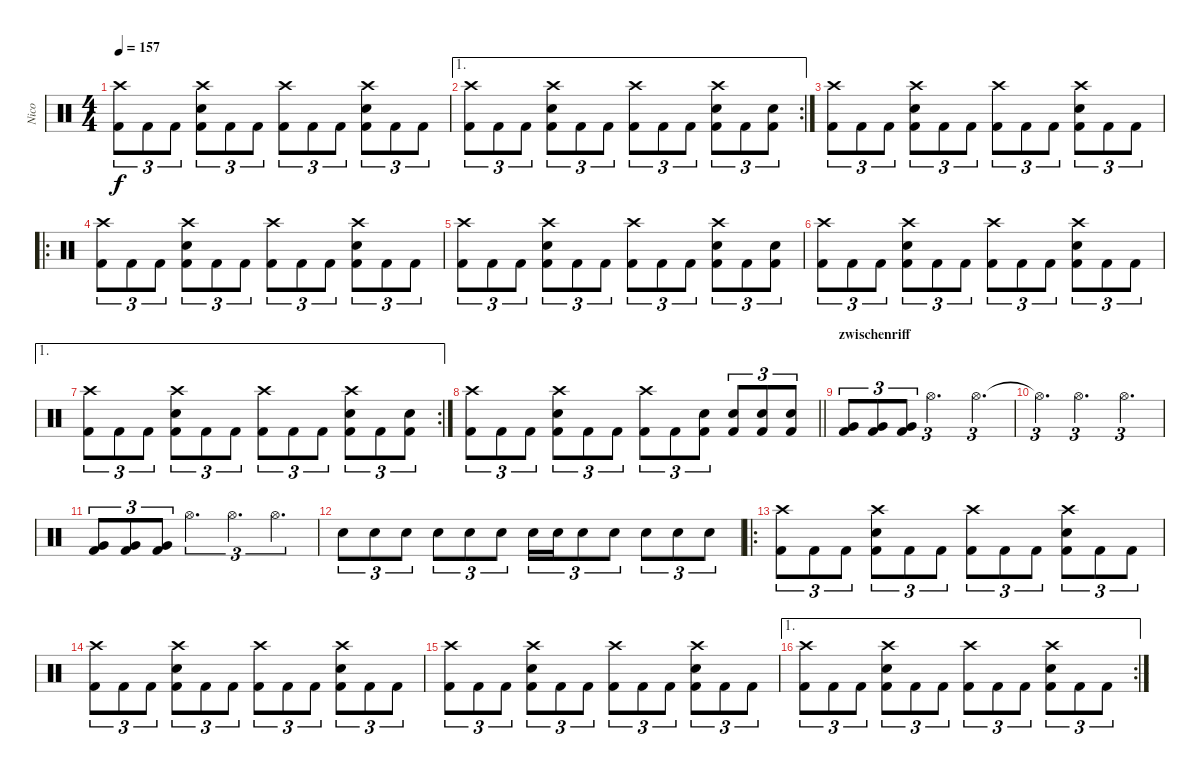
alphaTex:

\track ("Nico" "Nico") {instrument percussion}
\staff {score}
\articulation defaults
\ts (4 4)
\tempo 157
\clef neutral
\ks c
("Crash high (hit)" "Kick (hit) 2").8{tu (3 2) dy f} "Kick (hit) 2".8{tu (3 2)} "Kick (hit) 2".8{tu (3 2)} ("Crash high (hit)" "Electric Snare (hit)" "Kick (hit) 2").8{tu (3 2)} "Kick (hit) 2".8{tu (3 2)} "Kick (hit) 2".8{tu (3 2)} ("Crash high (hit)" "Kick (hit) 2").8{tu (3 2)} "Kick (hit) 2".8{tu (3 2)} "Kick (hit) 2".8{tu (3 2)} ("Crash high (hit)" "Electric Snare (hit)" "Kick (hit) 2").8{tu (3 2)} "Kick (hit) 2".8{tu (3 2)} "Kick (hit) 2".8{tu (3 2)} |
\ae 1
\rc 2
("Crash high (hit)" "Kick (hit) 2").8{tu (3 2)} "Kick (hit) 2".8{tu (3 2)} "Kick (hit) 2".8{tu (3 2)} ("Crash high (hit)" "Electric Snare (hit)" "Kick (hit) 2").8{tu (3 2)} "Kick (hit) 2".8{tu (3 2)} "Kick (hit) 2".8{tu (3 2)} ("Crash high (hit)" "Kick (hit) 2").8{tu (3 2)} "Kick (hit) 2".8{tu (3 2)} "Kick (hit) 2".8{tu (3 2)} ("Crash high (hit)" "Electric Snare (hit)" "Kick (hit) 2").8{tu (3 2)} "Kick (hit) 2".8{tu (3 2)} ("Electric Snare (hit)" "Kick (hit) 2").8{tu (3 2)} |
("Crash high (hit)" "Kick (hit) 2").8{tu (3 2)} "Kick (hit) 2".8{tu (3 2)} "Kick (hit) 2".8{tu (3 2)} ("Crash high (hit)" "Electric Snare (hit)" "Kick (hit) 2").8{tu (3 2)} "Kick (hit) 2".8{tu (3 2)} "Kick (hit) 2".8{tu (3 2)} ("Crash high (hit)" "Kick (hit) 2").8{tu (3 2)} "Kick (hit) 2".8{tu (3 2)} "Kick (hit) 2".8{tu (3 2)} ("Crash high (hit)" "Electric Snare (hit)" "Kick (hit) 2").8{tu (3 2)} "Kick (hit) 2".8{tu (3 2)} "Kick (hit) 2".8{tu (3 2)} |
\ro
("Crash high (hit)" "Kick (hit) 2").8{tu (3 2)} "Kick (hit) 2".8{tu (3 2)} "Kick (hit) 2".8{tu (3 2)} ("Crash high (hit)" "Electric Snare (hit)" "Kick (hit) 2").8{tu (3 2)} "Kick (hit) 2".8{tu (3 2)} "Kick (hit) 2".8{tu (3 2)} ("Crash high (hit)" "Kick (hit) 2").8{tu (3 2)} "Kick (hit) 2".8{tu (3 2)} "Kick (hit) 2".8{tu (3 2)} ("Crash high (hit)" "Electric Snare (hit)" "Kick (hit) 2").8{tu (3 2)} "Kick (hit) 2".8{tu (3 2)} "Kick (hit) 2".8{tu (3 2)} |
("Crash high (hit)" "Kick (hit) 2").8{tu (3 2)} "Kick (hit) 2".8{tu (3 2)} "Kick (hit) 2".8{tu (3 2)} ("Crash high (hit)" "Electric Snare (hit)" "Kick (hit) 2").8{tu (3 2)} "Kick (hit) 2".8{tu (3 2)} "Kick (hit) 2".8{tu (3 2)} ("Crash high (hit)" "Kick (hit) 2").8{tu (3 2)} "Kick (hit) 2".8{tu (3 2)} "Kick (hit) 2".8{tu (3 2)} ("Crash high (hit)" "Electric Snare (hit)" "Kick (hit) 2").8{tu (3 2)} "Kick (hit) 2".8{tu (3 2)} ("Electric Snare (hit)" "Kick (hit) 2").8{tu (3 2)} |
("Crash high (hit)" "Kick (hit) 2").8{tu (3 2)} "Kick (hit) 2".8{tu (3 2)} "Kick (hit) 2".8{tu (3 2)} ("Crash high (hit)" "Electric Snare (hit)" "Kick (hit) 2").8{tu (3 2)} "Kick (hit) 2".8{tu (3 2)} "Kick (hit) 2".8{tu (3 2)} ("Crash high (hit)" "Kick (hit) 2").8{tu (3 2)} "Kick (hit) 2".8{tu (3 2)} "Kick (hit) 2".8{tu (3 2)} ("Crash high (hit)" "Electric Snare (hit)" "Kick (hit) 2").8{tu (3 2)} "Kick (hit) 2".8{tu (3 2)} "Kick (hit) 2".8{tu (3 2)} |
\ae 1
\rc 2
("Crash high (hit)" "Kick (hit) 2").8{tu (3 2)} "Kick (hit) 2".8{tu (3 2)} "Kick (hit) 2".8{tu (3 2)} ("Crash high (hit)" "Electric Snare (hit)" "Kick (hit) 2").8{tu (3 2)} "Kick (hit) 2".8{tu (3 2)} "Kick (hit) 2".8{tu (3 2)} ("Crash high (hit)" "Kick (hit) 2").8{tu (3 2)} "Kick (hit) 2".8{tu (3 2)} "Kick (hit) 2".8{tu (3 2)} ("Crash high (hit)" "Electric Snare (hit)" "Kick (hit) 2").8{tu (3 2)} "Kick (hit) 2".8{tu (3 2)} ("Electric Snare (hit)" "Kick (hit) 2").8{tu (3 2)} |
\barLineRight lightlight
("Crash high (hit)" "Kick (hit) 2").8{tu (3 2)} "Kick (hit) 2".8{tu (3 2)} "Kick (hit) 2".8{tu (3 2)} ("Crash high (hit)" "Electric Snare (hit)" "Kick (hit) 2").8{tu (3 2)} "Kick (hit) 2".8{tu (3 2)} "Kick (hit) 2".8{tu (3 2)} ("Crash high (hit)" "Kick (hit) 2").8{tu (3 2)} "Kick (hit) 2".8{tu (3 2)} ("Electric Snare (hit)" "Kick (hit) 2").8{tu (3 2)} ("Electric Snare (hit)" "Kick (hit) 2").8{tu (3 2)} ("Electric Snare (hit)" "Kick (hit) 2").8{tu (3 2)} ("Electric Snare (hit)" "Kick (hit) 2").8{tu (3 2)} |
\section ("" "zwischenriff")
("Very Low Tom (hit)" "Kick (hit) 2").8{tu (3 2)} ("Very Low Tom (hit)" "Kick (hit) 2").8{tu (3 2)} ("Very Low Tom (hit)" "Kick (hit) 2").8{tu (3 2)} "Hi-Hat (open)".2{d tu (3 2)} "Hi-Hat (open)".4{d tu (3 2)} |
"Hi-Hat (open)"{t}.4{d tu (3 2)} "Hi-Hat (open)".2{d tu (3 2)} "Hi-Hat (open)".4{d tu (3 2)} |
("Very Low Tom (hit)" "Kick (hit) 2").8{tu (3 2)} ("Very Low Tom (hit)" "Kick (hit) 2").8{tu (3 2)} ("Very Low Tom (hit)" "Kick (hit) 2").8{tu (3 2)} "Hi-Hat (open)".4{d tu (3 2)} "Hi-Hat (open)".4{d tu (3 2)} "Hi-Hat (open)".4{d tu (3 2)} |
"Electric Snare (hit)".8{tu (3 2)} "Electric Snare (hit)".8{tu (3 2)} "Electric Snare (hit)".8{tu (3 2)} "Electric Snare (hit)".8{tu (3 2)} "Electric Snare (hit)".8{tu (3 2)} "Electric Snare (hit)".8{tu (3 2)} "Electric Snare (hit)".16{tu (3 2)} "Electric Snare (hit)".16{tu (3 2)} "Electric Snare (hit)".8{tu (3 2)} "Electric Snare (hit)".8{tu (3 2)} "Electric Snare (hit)".8{tu (3 2)} "Electric Snare (hit)".8{tu (3 2)} "Electric Snare (hit)".8{tu (3 2)} |
\ro
("Crash high (hit)" "Kick (hit) 2").8{tu (3 2)} "Kick (hit) 2".8{tu (3 2)} "Kick (hit) 2".8{tu (3 2)} ("Crash high (hit)" "Electric Snare (hit)" "Kick (hit) 2").8{tu (3 2)} "Kick (hit) 2".8{tu (3 2)} "Kick (hit) 2".8{tu (3 2)} ("Crash high (hit)" "Kick (hit) 2").8{tu (3 2)} "Kick (hit) 2".8{tu (3 2)} "Kick (hit) 2".8{tu (3 2)} ("Crash high (hit)" "Electric Snare (hit)" "Kick (hit) 2").8{tu (3 2)} "Kick (hit) 2".8{tu (3 2)} "Kick (hit) 2".8{tu (3 2)} |
("Crash high (hit)" "Kick (hit) 2").8{tu (3 2)} "Kick (hit) 2".8{tu (3 2)} "Kick (hit) 2".8{tu (3 2)} ("Crash high (hit)" "Electric Snare (hit)" "Kick (hit) 2").8{tu (3 2)} "Kick (hit) 2".8{tu (3 2)} "Kick (hit) 2".8{tu (3 2)} ("Crash high (hit)" "Kick (hit) 2").8{tu (3 2)} "Kick (hit) 2".8{tu (3 2)} "Kick (hit) 2".8{tu (3 2)} ("Crash high (hit)" "Electric Snare (hit)" "Kick (hit) 2").8{tu (3 2)} "Kick (hit) 2".8{tu (3 2)} "Kick (hit) 2".8{tu (3 2)} |
("Crash high (hit)" "Kick (hit) 2").8{tu (3 2)} "Kick (hit) 2".8{tu (3 2)} "Kick (hit) 2".8{tu (3 2)} ("Crash high (hit)" "Electric Snare (hit)" "Kick (hit) 2").8{tu (3 2)} "Kick (hit) 2".8{tu (3 2)} "Kick (hit) 2".8{tu (3 2)} ("Crash high (hit)" "Kick (hit) 2").8{tu (3 2)} "Kick (hit) 2".8{tu (3 2)} "Kick (hit) 2".8{tu (3 2)} ("Crash high (hit)" "Electric Snare (hit)" "Kick (hit) 2").8{tu (3 2)} "Kick (hit) 2".8{tu (3 2)} "Kick (hit) 2".8{tu (3 2)} |
\ae 1
\rc 2
("Crash high (hit)" "Kick (hit) 2").8{tu (3 2)} "Kick (hit) 2".8{tu (3 2)} "Kick (hit) 2".8{tu (3 2)} ("Crash high (hit)" "Electric Snare (hit)" "Kick (hit) 2").8{tu (3 2)} "Kick (hit) 2".8{tu (3 2)} "Kick (hit) 2".8{tu (3 2)} ("Crash high (hit)" "Kick (hit) 2").8{tu (3 2)} "Kick (hit) 2".8{tu (3 2)} "Kick (hit) 2".8{tu (3 2)} ("Crash high (hit)" "Electric Snare (hit)" "Kick (hit) 2").8{tu (3 2)} "Kick (hit) 2".8{tu (3 2)} "Kick (hit) 2".8{tu (3 2)}
